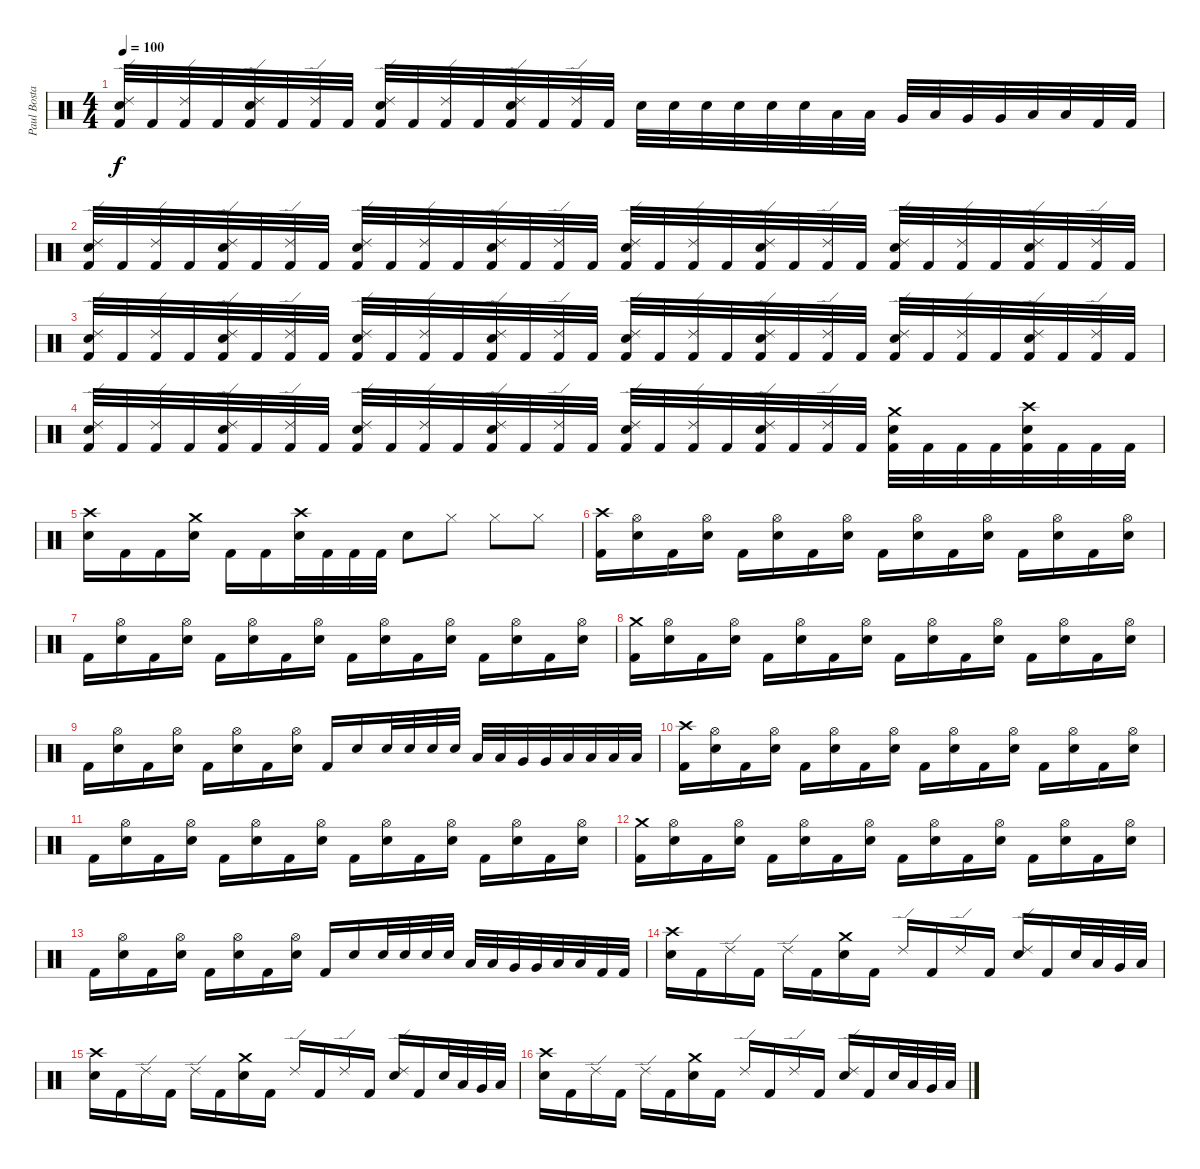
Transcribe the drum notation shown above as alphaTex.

\track ("Paul Bostaph" "Paul Bosta") {instrument percussion}
\staff {score}
\articulation defaults
\ts (4 4)
\tempo 100
\clef neutral
\ks c
("Ride (edge) 2" "Snare (hit) 2" "Kick (hit) 2").32{dy f} "Kick (hit) 2".32 ("Ride (edge) 2" "Kick (hit) 2").32 "Kick (hit) 2".32 ("Ride (edge) 2" "Snare (hit) 2" "Kick (hit) 2").32 "Kick (hit) 2".32 ("Ride (edge) 2" "Kick (hit) 2").32 "Kick (hit) 2".32 ("Ride (edge) 2" "Snare (hit) 2" "Kick (hit) 2").32 "Kick (hit) 2".32 ("Ride (edge) 2" "Kick (hit) 2").32 "Kick (hit) 2".32 ("Ride (edge) 2" "Snare (hit) 2" "Kick (hit) 2").32 "Kick (hit) 2".32 ("Ride (edge) 2" "Kick (hit) 2").32 "Kick (hit) 2".32 "Snare (hit) 2".32 "Snare (hit) 2".32 "Snare (hit) 2".32 "Snare (hit) 2".32 "Snare (hit) 2".32 "Snare (hit) 2".32 "Low Tom (hit)".32 "Low Tom (hit)".32 "Very Low Tom (hit)".32 "Low Floor Tom (hit)".32 "Very Low Tom (hit)".32 "Very Low Tom (hit)".32 "Low Floor Tom (hit)".32 "Low Floor Tom (hit)".32 "Kick (hit) 2".32 "Kick (hit) 2".32 |
("Ride (edge) 2" "Snare (hit) 2" "Kick (hit) 2").32 "Kick (hit) 2".32 ("Ride (edge) 2" "Kick (hit) 2").32 "Kick (hit) 2".32 ("Ride (edge) 2" "Snare (hit) 2" "Kick (hit) 2").32 "Kick (hit) 2".32 ("Ride (edge) 2" "Kick (hit) 2").32 "Kick (hit) 2".32 ("Ride (edge) 2" "Snare (hit) 2" "Kick (hit) 2").32 "Kick (hit) 2".32 ("Ride (edge) 2" "Kick (hit) 2").32 "Kick (hit) 2".32 ("Ride (edge) 2" "Snare (hit) 2" "Kick (hit) 2").32 "Kick (hit) 2".32 ("Ride (edge) 2" "Kick (hit) 2").32 "Kick (hit) 2".32 ("Ride (edge) 2" "Snare (hit) 2" "Kick (hit) 2").32 "Kick (hit) 2".32 ("Ride (edge) 2" "Kick (hit) 2").32 "Kick (hit) 2".32 ("Ride (edge) 2" "Snare (hit) 2" "Kick (hit) 2").32 "Kick (hit) 2".32 ("Ride (edge) 2" "Kick (hit) 2").32 "Kick (hit) 2".32 ("Ride (edge) 2" "Snare (hit) 2" "Kick (hit) 2").32 "Kick (hit) 2".32 ("Ride (edge) 2" "Kick (hit) 2").32 "Kick (hit) 2".32 ("Ride (edge) 2" "Snare (hit) 2" "Kick (hit) 2").32 "Kick (hit) 2".32 ("Ride (edge) 2" "Kick (hit) 2").32 "Kick (hit) 2".32 |
("Ride (edge) 2" "Snare (hit) 2" "Kick (hit) 2").32 "Kick (hit) 2".32 ("Ride (edge) 2" "Kick (hit) 2").32 "Kick (hit) 2".32 ("Ride (edge) 2" "Snare (hit) 2" "Kick (hit) 2").32 "Kick (hit) 2".32 ("Ride (edge) 2" "Kick (hit) 2").32 "Kick (hit) 2".32 ("Ride (edge) 2" "Snare (hit) 2" "Kick (hit) 2").32 "Kick (hit) 2".32 ("Ride (edge) 2" "Kick (hit) 2").32 "Kick (hit) 2".32 ("Ride (edge) 2" "Snare (hit) 2" "Kick (hit) 2").32 "Kick (hit) 2".32 ("Ride (edge) 2" "Kick (hit) 2").32 "Kick (hit) 2".32 ("Ride (edge) 2" "Snare (hit) 2" "Kick (hit) 2").32 "Kick (hit) 2".32 ("Ride (edge) 2" "Kick (hit) 2").32 "Kick (hit) 2".32 ("Ride (edge) 2" "Snare (hit) 2" "Kick (hit) 2").32 "Kick (hit) 2".32 ("Ride (edge) 2" "Kick (hit) 2").32 "Kick (hit) 2".32 ("Ride (edge) 2" "Snare (hit) 2" "Kick (hit) 2").32 "Kick (hit) 2".32 ("Ride (edge) 2" "Kick (hit) 2").32 "Kick (hit) 2".32 ("Ride (edge) 2" "Snare (hit) 2" "Kick (hit) 2").32 "Kick (hit) 2".32 ("Ride (edge) 2" "Kick (hit) 2").32 "Kick (hit) 2".32 |
("Ride (edge) 2" "Snare (hit) 2" "Kick (hit) 2").32 "Kick (hit) 2".32 ("Ride (edge) 2" "Kick (hit) 2").32 "Kick (hit) 2".32 ("Ride (edge) 2" "Snare (hit) 2" "Kick (hit) 2").32 "Kick (hit) 2".32 ("Ride (edge) 2" "Kick (hit) 2").32 "Kick (hit) 2".32 ("Ride (edge) 2" "Snare (hit) 2" "Kick (hit) 2").32 "Kick (hit) 2".32 ("Ride (edge) 2" "Kick (hit) 2").32 "Kick (hit) 2".32 ("Ride (edge) 2" "Snare (hit) 2" "Kick (hit) 2").32 "Kick (hit) 2".32 ("Ride (edge) 2" "Kick (hit) 2").32 "Kick (hit) 2".32 ("Ride (edge) 2" "Snare (hit) 2" "Kick (hit) 2").32 "Kick (hit) 2".32 ("Ride (edge) 2" "Kick (hit) 2").32 "Kick (hit) 2".32 ("Ride (edge) 2" "Snare (hit) 2" "Kick (hit) 2").32 "Kick (hit) 2".32 ("Ride (edge) 2" "Kick (hit) 2").32 "Kick (hit) 2".32 ("Crash medium (hit)" "Snare (hit) 2" "Kick (hit) 2").32 "Kick (hit) 2".32 "Kick (hit) 2".32 "Kick (hit) 2".32 ("Crash high (hit)" "Snare (hit) 2" "Kick (hit) 2").32 "Kick (hit) 2".32 "Kick (hit) 2".32 "Kick (hit) 2".32 |
("Crash high (hit)" "Snare (hit) 2").16 "Kick (hit) 2".16 "Kick (hit) 2".16 ("Crash medium (hit)" "Snare (hit) 2").16 "Kick (hit) 2".16 "Kick (hit) 2".16 ("Crash high (hit)" "Snare (hit) 2").32 "Kick (hit) 2".32 "Kick (hit) 2".32 "Kick (hit) 2".32 "Snare (hit) 2".8 "Hi-Hat (closed)".8 "Hi-Hat (closed)".8 "Hi-Hat (closed)".8 |
("Crash high (hit)" "Kick (hit) 2").16 ("Hi-Hat (open)" "Snare (hit) 2").16 "Kick (hit) 2".16 ("Hi-Hat (open)" "Snare (hit) 2").16 "Kick (hit) 2".16 ("Hi-Hat (open)" "Snare (hit) 2").16 "Kick (hit) 2".16 ("Hi-Hat (open)" "Snare (hit) 2").16 "Kick (hit) 2".16 ("Hi-Hat (open)" "Snare (hit) 2").16 "Kick (hit) 2".16 ("Hi-Hat (open)" "Snare (hit) 2").16 "Kick (hit) 2".16 ("Hi-Hat (open)" "Snare (hit) 2").16 "Kick (hit) 2".16 ("Hi-Hat (open)" "Snare (hit) 2").16 |
"Kick (hit) 2".16 ("Hi-Hat (open)" "Snare (hit) 2").16 "Kick (hit) 2".16 ("Hi-Hat (open)" "Snare (hit) 2").16 "Kick (hit) 2".16 ("Hi-Hat (open)" "Snare (hit) 2").16 "Kick (hit) 2".16 ("Hi-Hat (open)" "Snare (hit) 2").16 "Kick (hit) 2".16 ("Hi-Hat (open)" "Snare (hit) 2").16 "Kick (hit) 2".16 ("Hi-Hat (open)" "Snare (hit) 2").16 "Kick (hit) 2".16 ("Hi-Hat (open)" "Snare (hit) 2").16 "Kick (hit) 2".16 ("Hi-Hat (open)" "Snare (hit) 2").16 |
("Crash medium (hit)" "Kick (hit) 2").16 ("Hi-Hat (open)" "Snare (hit) 2").16 "Kick (hit) 2".16 ("Hi-Hat (open)" "Snare (hit) 2").16 "Kick (hit) 2".16 ("Hi-Hat (open)" "Snare (hit) 2").16 "Kick (hit) 2".16 ("Hi-Hat (open)" "Snare (hit) 2").16 "Kick (hit) 2".16 ("Hi-Hat (open)" "Snare (hit) 2").16 "Kick (hit) 2".16 ("Hi-Hat (open)" "Snare (hit) 2").16 "Kick (hit) 2".16 ("Hi-Hat (open)" "Snare (hit) 2").16 "Kick (hit) 2".16 ("Hi-Hat (open)" "Snare (hit) 2").16 |
"Kick (hit) 2".16 ("Hi-Hat (open)" "Snare (hit) 2").16 "Kick (hit) 2".16 ("Hi-Hat (open)" "Snare (hit) 2").16 "Kick (hit) 2".16 ("Hi-Hat (open)" "Snare (hit) 2").16 "Kick (hit) 2".16 ("Hi-Hat (open)" "Snare (hit) 2").16 "Kick (hit) 2".16 "Snare (hit) 2".16 "Snare (hit) 2".32 "Snare (hit) 2".32 "Snare (hit) 2".32 "Snare (hit) 2".32 "Low Tom (hit)".32 "Low Tom (hit)".32 "Very Low Tom (hit)".32 "Very Low Tom (hit)".32 "Low Floor Tom (hit)".32 "Low Floor Tom (hit)".32 "Low Floor Tom (hit)".32 "Low Floor Tom (hit)".32 |
("Crash high (hit)" "Kick (hit) 2").16 ("Hi-Hat (open)" "Snare (hit) 2").16 "Kick (hit) 2".16 ("Hi-Hat (open)" "Snare (hit) 2").16 "Kick (hit) 2".16 ("Hi-Hat (open)" "Snare (hit) 2").16 "Kick (hit) 2".16 ("Hi-Hat (open)" "Snare (hit) 2").16 "Kick (hit) 2".16 ("Hi-Hat (open)" "Snare (hit) 2").16 "Kick (hit) 2".16 ("Hi-Hat (open)" "Snare (hit) 2").16 "Kick (hit) 2".16 ("Hi-Hat (open)" "Snare (hit) 2").16 "Kick (hit) 2".16 ("Hi-Hat (open)" "Snare (hit) 2").16 |
"Kick (hit) 2".16 ("Hi-Hat (open)" "Snare (hit) 2").16 "Kick (hit) 2".16 ("Hi-Hat (open)" "Snare (hit) 2").16 "Kick (hit) 2".16 ("Hi-Hat (open)" "Snare (hit) 2").16 "Kick (hit) 2".16 ("Hi-Hat (open)" "Snare (hit) 2").16 "Kick (hit) 2".16 ("Hi-Hat (open)" "Snare (hit) 2").16 "Kick (hit) 2".16 ("Hi-Hat (open)" "Snare (hit) 2").16 "Kick (hit) 2".16 ("Hi-Hat (open)" "Snare (hit) 2").16 "Kick (hit) 2".16 ("Hi-Hat (open)" "Snare (hit) 2").16 |
("Crash medium (hit)" "Kick (hit) 2").16 ("Hi-Hat (open)" "Snare (hit) 2").16 "Kick (hit) 2".16 ("Hi-Hat (open)" "Snare (hit) 2").16 "Kick (hit) 2".16 ("Hi-Hat (open)" "Snare (hit) 2").16 "Kick (hit) 2".16 ("Hi-Hat (open)" "Snare (hit) 2").16 "Kick (hit) 2".16 ("Hi-Hat (open)" "Snare (hit) 2").16 "Kick (hit) 2".16 ("Hi-Hat (open)" "Snare (hit) 2").16 "Kick (hit) 2".16 ("Hi-Hat (open)" "Snare (hit) 2").16 "Kick (hit) 2".16 ("Hi-Hat (open)" "Snare (hit) 2").16 |
"Kick (hit) 2".16 ("Hi-Hat (open)" "Snare (hit) 2").16 "Kick (hit) 2".16 ("Hi-Hat (open)" "Snare (hit) 2").16 "Kick (hit) 2".16 ("Hi-Hat (open)" "Snare (hit) 2").16 "Kick (hit) 2".16 ("Hi-Hat (open)" "Snare (hit) 2").16 "Kick (hit) 2".16 "Snare (hit) 2".16 "Snare (hit) 2".32 "Snare (hit) 2".32 "Snare (hit) 2".32 "Snare (hit) 2".32 "Low Tom (hit)".32 "Low Tom (hit)".32 "Very Low Tom (hit)".32 "Very Low Tom (hit)".32 "Low Floor Tom (hit)".32 "Low Floor Tom (hit)".32 "Kick (hit) 2".32 "Kick (hit) 2".32 |
("Crash high (hit)" "Snare (hit) 2").16 "Kick (hit) 2".16 "Ride (edge) 2".16 "Kick (hit) 2".16 "Ride (edge) 2".16 "Kick (hit) 2".16 ("Crash medium (hit)" "Snare (hit) 2").16 "Kick (hit) 2".16 "Ride (edge) 2".16 "Kick (hit) 2".16 "Ride (edge) 2".16 "Kick (hit) 2".16 ("Ride (edge) 2" "Snare (hit) 2").16 "Kick (hit) 2".16 "Snare (hit) 2".32 "Low Tom (hit)".32 "Very Low Tom (hit)".32 "Low Floor Tom (hit)".32 |
("Crash high (hit)" "Snare (hit) 2").16 "Kick (hit) 2".16 "Ride (edge) 2".16 "Kick (hit) 2".16 "Ride (edge) 2".16 "Kick (hit) 2".16 ("Crash medium (hit)" "Snare (hit) 2").16 "Kick (hit) 2".16 "Ride (edge) 2".16 "Kick (hit) 2".16 "Ride (edge) 2".16 "Kick (hit) 2".16 ("Ride (edge) 2" "Snare (hit) 2").16 "Kick (hit) 2".16 "Snare (hit) 2".32 "Low Tom (hit)".32 "Very Low Tom (hit)".32 "Low Floor Tom (hit)".32 |
("Crash high (hit)" "Snare (hit) 2").16 "Kick (hit) 2".16 "Ride (edge) 2".16 "Kick (hit) 2".16 "Ride (edge) 2".16 "Kick (hit) 2".16 ("Crash medium (hit)" "Snare (hit) 2").16 "Kick (hit) 2".16 "Ride (edge) 2".16 "Kick (hit) 2".16 "Ride (edge) 2".16 "Kick (hit) 2".16 ("Ride (edge) 2" "Snare (hit) 2").16 "Kick (hit) 2".16 "Snare (hit) 2".32 "Low Tom (hit)".32 "Very Low Tom (hit)".32 "Low Floor Tom (hit)".32
